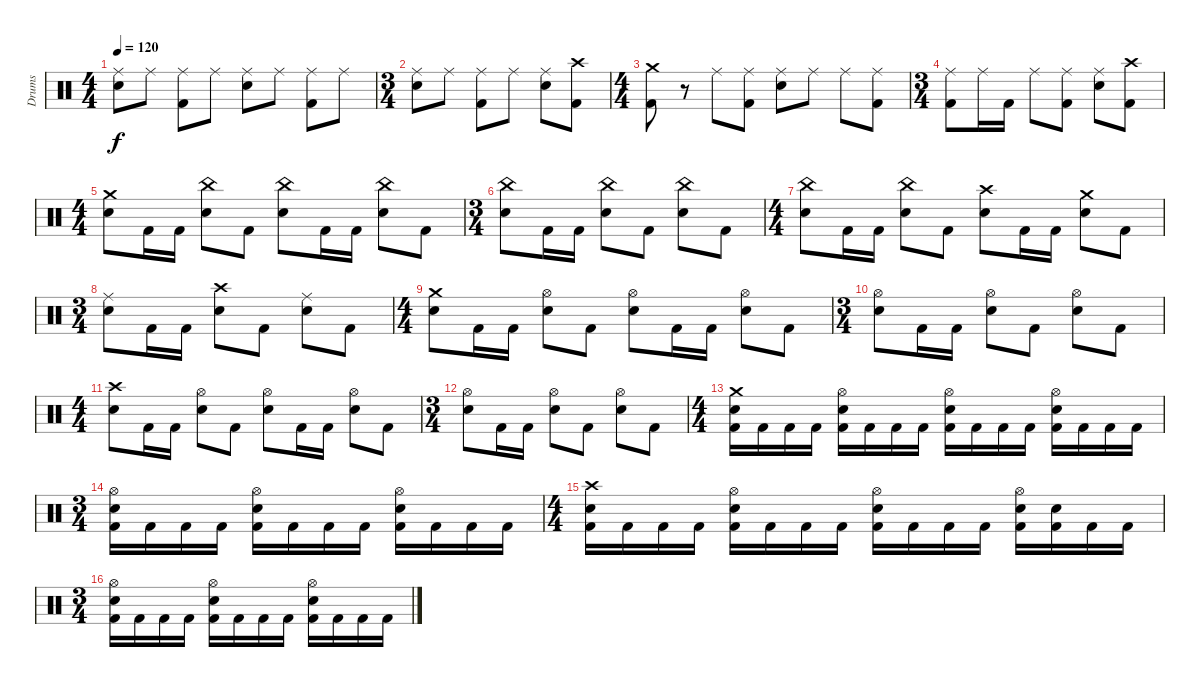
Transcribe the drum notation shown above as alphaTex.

\track ("Drums" "Drums") {instrument percussion}
\staff {score}
\articulation defaults
\ts (4 4)
\tempo 120
\clef neutral
\ks c
("Ride (middle)" "Snare (hit) 2").8{dy f} "Ride (middle)".8 ("Ride (middle)" "Kick (hit) 2").8 "Ride (middle)".8 ("Ride (middle)" "Snare (hit) 2").8 "Ride (middle)".8 ("Ride (middle)" "Kick (hit) 2").8 "Ride (middle)".8 |
\ts (3 4)
("Ride (middle)" "Snare (hit) 2").8 "Ride (middle)".8 ("Ride (middle)" "Kick (hit) 2").8 "Ride (middle)".8 ("Ride (middle)" "Snare (hit) 2").8 ("Crash high (hit)" "Kick (hit) 2").8 |
\ts (4 4)
("Crash medium (hit)" "Kick (hit) 2").8 r.8 "Ride (middle)".8 ("Ride (middle)" "Kick (hit) 2").8 ("Ride (middle)" "Snare (hit) 2").8 "Ride (middle)".8 "Ride (middle)".8 ("Ride (middle)" "Kick (hit) 2").8 |
\ts (3 4)
("Ride (middle)" "Kick (hit) 2").8 "Ride (middle)".16 "Kick (hit) 2".16 "Ride (middle)".8 ("Ride (middle)" "Kick (hit) 2").8 ("Ride (middle)" "Snare (hit) 2").8 ("Crash high (hit)" "Kick (hit) 2").8 |
\ts (4 4)
("Crash medium (hit)" "Snare (hit) 2").8 "Kick (hit) 2".16 "Kick (hit) 2".16 ("China (hit)" "Snare (hit) 2").8 "Kick (hit) 2".8 ("China (hit)" "Snare (hit) 2").8 "Kick (hit) 2".16 "Kick (hit) 2".16 ("China (hit)" "Snare (hit) 2").8 "Kick (hit) 2".8 |
\ts (3 4)
("China (hit)" "Snare (hit) 2").8 "Kick (hit) 2".16 "Kick (hit) 2".16 ("China (hit)" "Snare (hit) 2").8 "Kick (hit) 2".8 ("China (hit)" "Snare (hit) 2").8 "Kick (hit) 2".8 |
\ts (4 4)
("China (hit)" "Snare (hit) 2").8 "Kick (hit) 2".16 "Kick (hit) 2".16 ("China (hit)" "Snare (hit) 2").8 "Kick (hit) 2".8 ("Crash high (hit)" "Snare (hit) 2").8 "Kick (hit) 2".16 "Kick (hit) 2".16 ("Crash medium (hit)" "Snare (hit) 2").8 "Kick (hit) 2".8 |
\ts (3 4)
("Ride (middle)" "Snare (hit) 2").8 "Kick (hit) 2".16 "Kick (hit) 2".16 ("Crash high (hit)" "Snare (hit) 2").8 "Kick (hit) 2".8 ("Ride (middle)" "Snare (hit) 2").8 "Kick (hit) 2".8 |
\ts (4 4)
("Crash medium (hit)" "Snare (hit) 2").8 "Kick (hit) 2".16 "Kick (hit) 2".16 ("Hi-Hat (open)" "Snare (hit) 2").8 "Kick (hit) 2".8 ("Hi-Hat (open)" "Snare (hit) 2").8 "Kick (hit) 2".16 "Kick (hit) 2".16 ("Hi-Hat (open)" "Snare (hit) 2").8 "Kick (hit) 2".8 |
\ts (3 4)
("Hi-Hat (open)" "Snare (hit) 2").8 "Kick (hit) 2".16 "Kick (hit) 2".16 ("Hi-Hat (open)" "Snare (hit) 2").8 "Kick (hit) 2".8 ("Hi-Hat (open)" "Snare (hit) 2").8 "Kick (hit) 2".8 |
\ts (4 4)
("Crash high (hit)" "Snare (hit) 2").8 "Kick (hit) 2".16 "Kick (hit) 2".16 ("Hi-Hat (open)" "Snare (hit) 2").8 "Kick (hit) 2".8 ("Hi-Hat (open)" "Snare (hit) 2").8 "Kick (hit) 2".16 "Kick (hit) 2".16 ("Hi-Hat (open)" "Snare (hit) 2").8 "Kick (hit) 2".8 |
\ts (3 4)
("Hi-Hat (open)" "Snare (hit) 2").8 "Kick (hit) 2".16 "Kick (hit) 2".16 ("Hi-Hat (open)" "Snare (hit) 2").8 "Kick (hit) 2".8 ("Hi-Hat (open)" "Snare (hit) 2").8 "Kick (hit) 2".8 |
\ts (4 4)
("Crash medium (hit)" "Snare (hit) 2" "Kick (hit) 2").16 "Kick (hit) 2".16 "Kick (hit) 2".16 "Kick (hit) 2".16 ("Hi-Hat (open)" "Snare (hit) 2" "Kick (hit) 2").16 "Kick (hit) 2".16 "Kick (hit) 2".16 "Kick (hit) 2".16 ("Hi-Hat (open)" "Snare (hit) 2" "Kick (hit) 2").16 "Kick (hit) 2".16 "Kick (hit) 2".16 "Kick (hit) 2".16 ("Hi-Hat (open)" "Snare (hit) 2" "Kick (hit) 2").16 "Kick (hit) 2".16 "Kick (hit) 2".16 "Kick (hit) 2".16 |
\ts (3 4)
("Hi-Hat (open)" "Snare (hit) 2" "Kick (hit) 2").16 "Kick (hit) 2".16 "Kick (hit) 2".16 "Kick (hit) 2".16 ("Hi-Hat (open)" "Snare (hit) 2" "Kick (hit) 2").16 "Kick (hit) 2".16 "Kick (hit) 2".16 "Kick (hit) 2".16 ("Hi-Hat (open)" "Snare (hit) 2" "Kick (hit) 2").16 "Kick (hit) 2".16 "Kick (hit) 2".16 "Kick (hit) 2".16 |
\ts (4 4)
("Crash high (hit)" "Snare (hit) 2" "Kick (hit) 2").16 "Kick (hit) 2".16 "Kick (hit) 2".16 "Kick (hit) 2".16 ("Hi-Hat (open)" "Snare (hit) 2" "Kick (hit) 2").16 "Kick (hit) 2".16 "Kick (hit) 2".16 "Kick (hit) 2".16 ("Hi-Hat (open)" "Snare (hit) 2" "Kick (hit) 2").16 "Kick (hit) 2".16 "Kick (hit) 2".16 "Kick (hit) 2".16 ("Hi-Hat (open)" "Snare (hit) 2" "Kick (hit) 2").16 ("Snare (hit) 2" "Kick (hit) 2").16 "Kick (hit) 2".16 "Kick (hit) 2".16 |
\ts (3 4)
("Hi-Hat (open)" "Snare (hit) 2" "Kick (hit) 2").16 "Kick (hit) 2".16 "Kick (hit) 2".16 "Kick (hit) 2".16 ("Hi-Hat (open)" "Snare (hit) 2" "Kick (hit) 2").16 "Kick (hit) 2".16 "Kick (hit) 2".16 "Kick (hit) 2".16 ("Hi-Hat (open)" "Snare (hit) 2" "Kick (hit) 2").16 "Kick (hit) 2".16 "Kick (hit) 2".16 "Kick (hit) 2".16
